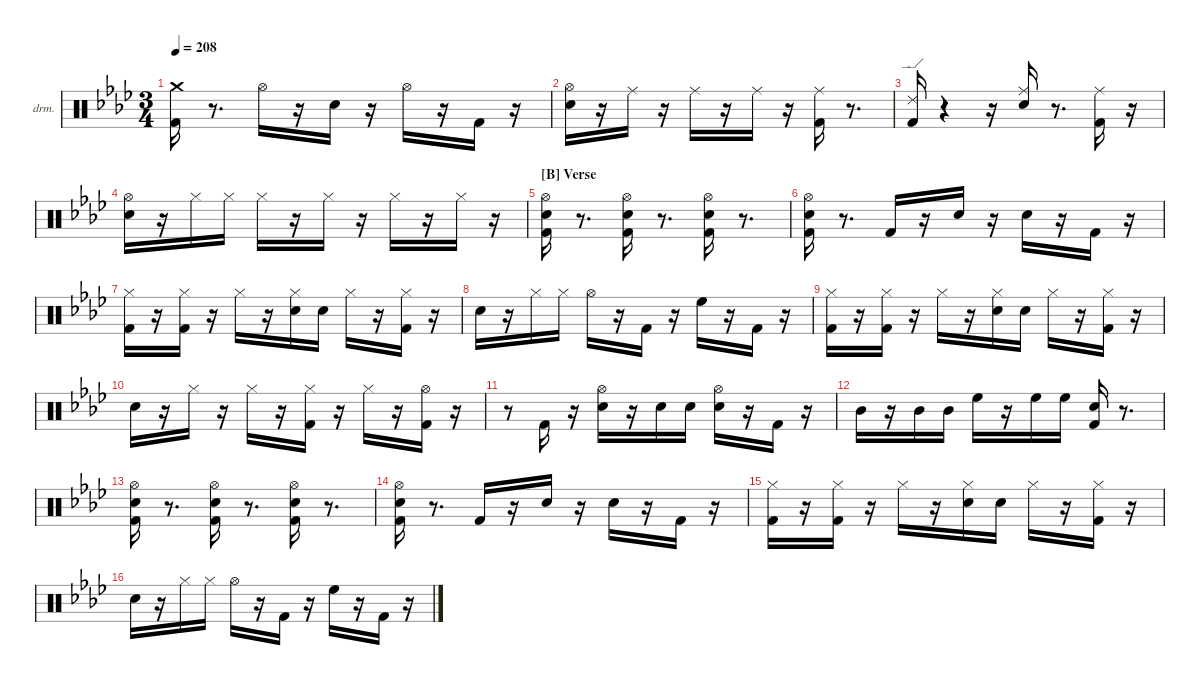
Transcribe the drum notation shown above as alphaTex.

\hideDynamics
\bracketExtendMode nobrackets
\firstSystemTrackNameOrientation horizontal
\otherSystemsTrackNameOrientation horizontal
\track ("EZdrummer 3" "drm.") {instrument percussion}
\staff {score}
\articulation defaults
\ts (3 4)
\tempo 208
\clef neutral
\ks fminor
("Kick (hit) 2"{acc forcenatural} "Crash medium (hit)"{acc forcenatural}).16{dy fff beam Down} r.8{d beam Down} "Hi-Hat (open)"{acc b}.16{dy mf beam Down} r.16{beam Down} "Snare (hit) 2"{acc forcenatural}.16{dy f beam Down} r.16{beam Down} "Hi-Hat (open)"{acc b}.16{beam Down} r.16{beam Down} "Kick (hit) 2"{acc forcenatural}.16{dy ff beam Up} r.16{beam Up} |
("Snare (hit) 2"{acc forcenatural} "Hi-Hat (open)"{acc b}).16{beam Down} r.16{beam Down} "Ride (middle)"{acc b}.16{dy p beam Down} r.16{beam Down} "Ride (middle)"{acc b}.16{dy ff beam Down} r.16{beam Down} "Ride (middle)"{acc b}.16{dy f beam Down} r.16{beam Down} ("Kick (hit) 2"{acc forcenatural} "Ride (middle)"{acc b}).16{dy ff beam Down} r.8{d beam Down} |
("Kick (hit) 2"{acc forcenatural} "Ride (edge) 2"{acc forcenatural}).16{beam Up} r.4{beam Up} r.16{beam Up} ("Snare (hit) 2"{acc forcenatural} "Ride (middle)"{acc b}).16{dy f beam Down} r.8{d beam Down} ("Kick (hit) 2"{acc forcenatural} "Ride (middle)"{acc b}).16{dy ff beam Down} r.16{beam Down} |
("Snare (hit) 2"{acc forcenatural} "Hi-Hat (open)"{acc b}).16{beam Down} r.16{beam Down} "Hi-Hat (closed)"{acc b}.16{beam Down} "Hi-Hat (closed)"{acc b}.16{dy mf beam Down} "Hi-Hat (closed)"{acc b}.16{dy fff beam Down} r.16{beam Down} "Hi-Hat (closed)"{acc b}.16{beam Down} r.16{beam Down} "Hi-Hat (closed)"{acc b}.16{dy ff beam Down} r.16{beam Down} "Hi-Hat (closed)"{acc b}.16{beam Down} r.16{beam Down} |
\section ("B" "Verse")
("Kick (hit) 2"{acc forcenatural} "Snare (hit) 2"{acc forcenatural} "Hi-Hat (open)"{acc b}).16{dy fff beam Down} r.8{d beam Down} ("Kick (hit) 2"{acc forcenatural} "Snare (hit) 2"{acc forcenatural} "Hi-Hat (open)"{acc b}).16{dy mf beam Down} r.8{d beam Down} ("Kick (hit) 2"{acc forcenatural} "Snare (hit) 2"{acc forcenatural} "Hi-Hat (open)"{acc b}).16{dy f beam Down} r.8{d beam Down} |
("Kick (hit) 2"{acc forcenatural} "Snare (hit) 2"{acc forcenatural} "Hi-Hat (open)"{acc b}).16{dy fff beam Down} r.8{d beam Down} "Kick (hit) 2"{acc forcenatural}.16{dy ff beam Up} r.16{beam Up} "Snare (hit) 2"{acc forcenatural}.16{dy f beam Down} r.16{beam Down} "Snare (hit) 2"{acc forcenatural}.16{dy pp beam Down} r.16{beam Down} "Kick (hit) 2"{acc forcenatural}.16{dy p beam Up} r.16{beam Up} |
("Kick (hit) 2"{acc forcenatural} "Hi-Hat (closed)"{acc b}).16{dy ff beam Down} r.16{beam Down} ("Kick (hit) 2"{acc forcenatural} "Hi-Hat (closed)"{acc b}).16{dy mf beam Down} r.16{beam Down} "Hi-Hat (closed)"{acc b}.16{dy pp beam Down} r.16{beam Down} ("Snare (hit) 2"{acc forcenatural} "Hi-Hat (closed)"{acc b}).16{dy mf beam Down} "Snare (hit) 2"{acc forcenatural}.16{dy ppp beam Down} "Hi-Hat (closed)"{acc b}.16{dy mf beam Down} r.16{beam Down} ("Kick (hit) 2"{acc forcenatural} "Hi-Hat (closed)"{acc b}).16{dy ff beam Down} r.16{beam Down} |
"Snare (hit) 2"{acc forcenatural}.16{dy fff beam Down} r.16{beam Down} "Hi-Hat (closed)"{acc b}.16{dy f beam Down} "Hi-Hat (closed)"{acc b}.16{dy mf beam Down} "Hi-Hat (open)"{acc b}.16{dy fff beam Down} r.16{beam Down} "Kick (hit) 2"{acc forcenatural}.16{dy ff beam Up} r.16{beam Up} "High Floor Tom (hit)"{acc forcenatural}.16{dy f beam Down} r.16{beam Down} "Kick (hit) 2"{acc forcenatural}.16{beam Up} r.16{beam Up} |
("Kick (hit) 2"{acc forcenatural} "Hi-Hat (closed)"{acc b}).16{dy ff beam Down} r.16{beam Down} ("Kick (hit) 2"{acc forcenatural} "Hi-Hat (closed)"{acc b}).16{beam Down} r.16{beam Down} "Hi-Hat (closed)"{acc b}.16{dy pp beam Down} r.16{beam Down} ("Snare (hit) 2"{acc forcenatural} "Hi-Hat (closed)"{acc b}).16{dy mf beam Down} "Snare (hit) 2"{acc forcenatural}.16{dy ppp beam Down} "Hi-Hat (closed)"{acc b}.16{dy mf beam Down} r.16{beam Down} ("Kick (hit) 2"{acc forcenatural} "Hi-Hat (closed)"{acc b}).16{dy ff beam Down} r.16{beam Down} |
"Snare (hit) 2"{acc forcenatural}.16{dy fff beam Down} r.16{beam Down} "Hi-Hat (closed)"{acc b}.16{dy mf beam Down} r.16{beam Down} "Hi-Hat (closed)"{acc b}.16{dy fff beam Down} r.16{beam Down} ("Kick (hit) 2"{acc forcenatural} "Hi-Hat (closed)"{acc b}).16{dy ff beam Down} r.16{beam Down} "Hi-Hat (closed)"{acc b}.16{dy fff beam Down} r.16{beam Down} ("Kick (hit) 2"{acc forcenatural} "Hi-Hat (open)"{acc b}).16{dy f beam Down} r.16{beam Down} |
r.8{beam Down} "Kick (hit) 2"{acc forcenatural}.16{dy mf beam Up} r.16{beam Up} ("Snare (hit) 2"{acc forcenatural} "Hi-Hat (open)"{acc b}).16{dy ff beam Down} r.16{beam Down} "Snare (hit) 2"{acc forcenatural}.16{dy pp beam Down} "Snare (hit) 2"{acc forcenatural}.16{dy ppp beam Down} ("Snare (hit) 2"{acc forcenatural} "Hi-Hat (open)"{acc b}).16{dy fff beam Down} r.16{beam Down} "Kick (hit) 2"{acc forcenatural}.16{dy ff beam Up} r.16{beam Up} |
"Mid Tom (hit)"{acc forcenatural}.16{beam Down} r.16{beam Down} "Mid Tom (hit)"{acc forcenatural}.16{beam Up} "Mid Tom (hit)"{acc forcenatural}.16{beam Up} "High Floor Tom (hit)"{acc forcenatural}.16{beam Down} r.16{beam Down} "High Floor Tom (hit)"{acc forcenatural}.16{beam Down} "High Floor Tom (hit)"{acc forcenatural}.16{beam Down} ("Kick (hit) 2"{acc forcenatural} "Snare (hit) 2"{acc forcenatural}).16{beam Up} r.8{d beam Up} |
("Kick (hit) 2"{acc forcenatural} "Snare (hit) 2"{acc forcenatural} "Hi-Hat (open)"{acc b}).16{dy fff beam Down} r.8{d beam Down} ("Kick (hit) 2"{acc forcenatural} "Snare (hit) 2"{acc forcenatural} "Hi-Hat (open)"{acc b}).16{dy mf beam Down} r.8{d beam Down} ("Kick (hit) 2"{acc forcenatural} "Snare (hit) 2"{acc forcenatural} "Hi-Hat (open)"{acc b}).16{dy f beam Down} r.8{d beam Down} |
("Kick (hit) 2"{acc forcenatural} "Snare (hit) 2"{acc forcenatural} "Hi-Hat (open)"{acc b}).16{dy fff beam Down} r.8{d beam Down} "Kick (hit) 2"{acc forcenatural}.16{dy ff beam Up} r.16{beam Up} "Snare (hit) 2"{acc forcenatural}.16{dy f beam Down} r.16{beam Down} "Snare (hit) 2"{acc forcenatural}.16{dy pp beam Down} r.16{beam Down} "Kick (hit) 2"{acc forcenatural}.16{dy p beam Up} r.16{beam Up} |
("Kick (hit) 2"{acc forcenatural} "Hi-Hat (closed)"{acc b}).16{dy ff beam Down} r.16{beam Down} ("Kick (hit) 2"{acc forcenatural} "Hi-Hat (closed)"{acc b}).16{beam Down} r.16{beam Down} "Hi-Hat (closed)"{acc b}.16{dy pp beam Down} r.16{beam Down} ("Snare (hit) 2"{acc forcenatural} "Hi-Hat (closed)"{acc b}).16{dy mf beam Down} "Snare (hit) 2"{acc forcenatural}.16{dy ppp beam Down} "Hi-Hat (closed)"{acc b}.16{dy mf beam Down} r.16{beam Down} ("Kick (hit) 2"{acc forcenatural} "Hi-Hat (closed)"{acc b}).16{dy ff beam Down} r.16{beam Down} |
"Snare (hit) 2"{acc forcenatural}.16{dy fff beam Down} r.16{beam Down} "Hi-Hat (closed)"{acc b}.16{dy f beam Down} "Hi-Hat (closed)"{acc b}.16{dy mf beam Down} "Hi-Hat (open)"{acc b}.16{dy fff beam Down} r.16{beam Down} "Kick (hit) 2"{acc forcenatural}.16{dy ff beam Up} r.16{beam Up} "High Floor Tom (hit)"{acc forcenatural}.16{dy f beam Down} r.16{beam Down} "Kick (hit) 2"{acc forcenatural}.16{beam Up} r.16{beam Up}
